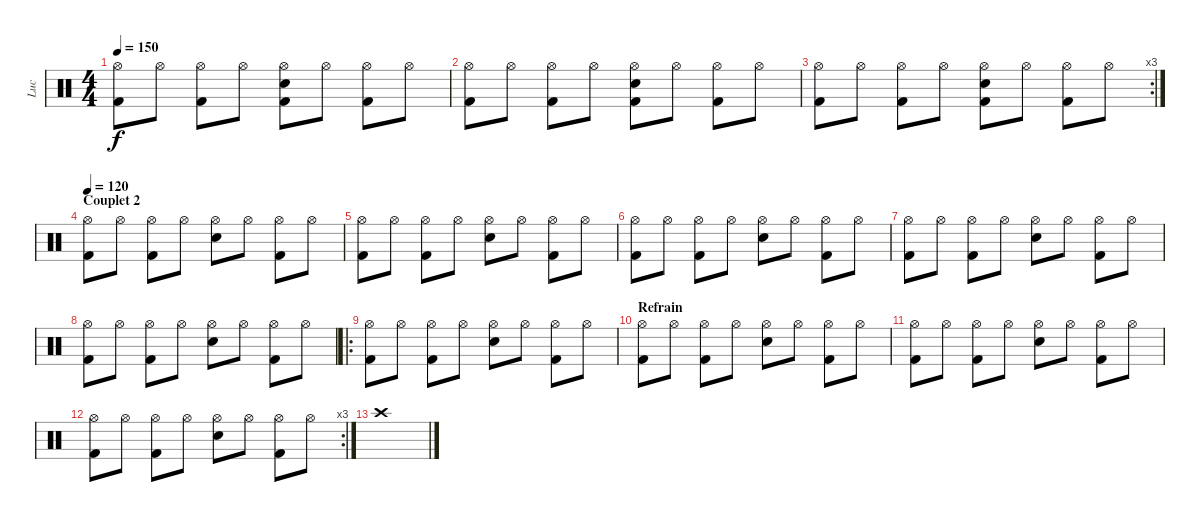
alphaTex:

\track ("Luc" "Luc") {instrument percussion}
\staff {score}
\articulation defaults
\ts (4 4)
\tempo 150
\clef neutral
\ks c
("Hi-Hat (open)" "Kick (hit) 2").8{dy f} "Hi-Hat (open)".8 ("Hi-Hat (open)" "Kick (hit) 2").8 "Hi-Hat (open)".8 ("Hi-Hat (open)" "Snare (hit) 2" "Kick (hit) 2").8 "Hi-Hat (open)".8 ("Hi-Hat (open)" "Kick (hit) 2").8 "Hi-Hat (open)".8 |
("Hi-Hat (open)" "Kick (hit) 2").8 "Hi-Hat (open)".8 ("Hi-Hat (open)" "Kick (hit) 2").8 "Hi-Hat (open)".8 ("Hi-Hat (open)" "Snare (hit) 2" "Kick (hit) 2").8 "Hi-Hat (open)".8 ("Hi-Hat (open)" "Kick (hit) 2").8 "Hi-Hat (open)".8 |
\rc 3
("Hi-Hat (open)" "Kick (hit) 2").8 "Hi-Hat (open)".8 ("Hi-Hat (open)" "Kick (hit) 2").8 "Hi-Hat (open)".8 ("Hi-Hat (open)" "Snare (hit) 2" "Kick (hit) 2").8 "Hi-Hat (open)".8 ("Hi-Hat (open)" "Kick (hit) 2").8 "Hi-Hat (open)".8 |
\section ("" "Couplet 2")
\tempo 120
("Hi-Hat (open)" "Kick (hit) 2").8 "Hi-Hat (open)".8 ("Hi-Hat (open)" "Kick (hit) 2").8 "Hi-Hat (open)".8 ("Hi-Hat (open)" "Snare (hit) 2").8 "Hi-Hat (open)".8 ("Hi-Hat (open)" "Kick (hit) 2").8 "Hi-Hat (open)".8 |
("Hi-Hat (open)" "Kick (hit) 2").8 "Hi-Hat (open)".8 ("Hi-Hat (open)" "Kick (hit) 2").8 "Hi-Hat (open)".8 ("Hi-Hat (open)" "Snare (hit) 2").8 "Hi-Hat (open)".8 ("Hi-Hat (open)" "Kick (hit) 2").8 "Hi-Hat (open)".8 |
("Hi-Hat (open)" "Kick (hit) 2").8 "Hi-Hat (open)".8 ("Hi-Hat (open)" "Kick (hit) 2").8 "Hi-Hat (open)".8 ("Hi-Hat (open)" "Snare (hit) 2").8 "Hi-Hat (open)".8 ("Hi-Hat (open)" "Kick (hit) 2").8 "Hi-Hat (open)".8 |
("Hi-Hat (open)" "Kick (hit) 2").8 "Hi-Hat (open)".8 ("Hi-Hat (open)" "Kick (hit) 2").8 "Hi-Hat (open)".8 ("Hi-Hat (open)" "Snare (hit) 2").8 "Hi-Hat (open)".8 ("Hi-Hat (open)" "Kick (hit) 2").8 "Hi-Hat (open)".8 |
("Hi-Hat (open)" "Kick (hit) 2").8 "Hi-Hat (open)".8 ("Hi-Hat (open)" "Kick (hit) 2").8 "Hi-Hat (open)".8 ("Hi-Hat (open)" "Snare (hit) 2").8 "Hi-Hat (open)".8 ("Hi-Hat (open)" "Kick (hit) 2").8 "Hi-Hat (open)".8 |
\ro
("Hi-Hat (open)" "Kick (hit) 2").8 "Hi-Hat (open)".8 ("Hi-Hat (open)" "Kick (hit) 2").8 "Hi-Hat (open)".8 ("Hi-Hat (open)" "Snare (hit) 2").8 "Hi-Hat (open)".8 ("Hi-Hat (open)" "Kick (hit) 2").8 "Hi-Hat (open)".8 |
\section ("" "Refrain")
("Hi-Hat (open)" "Kick (hit) 2").8 "Hi-Hat (open)".8 ("Hi-Hat (open)" "Kick (hit) 2").8 "Hi-Hat (open)".8 ("Hi-Hat (open)" "Snare (hit) 2").8 "Hi-Hat (open)".8 ("Hi-Hat (open)" "Kick (hit) 2").8 "Hi-Hat (open)".8 |
("Hi-Hat (open)" "Kick (hit) 2").8 "Hi-Hat (open)".8 ("Hi-Hat (open)" "Kick (hit) 2").8 "Hi-Hat (open)".8 ("Hi-Hat (open)" "Snare (hit) 2").8 "Hi-Hat (open)".8 ("Hi-Hat (open)" "Kick (hit) 2").8 "Hi-Hat (open)".8 |
\rc 3
("Hi-Hat (open)" "Kick (hit) 2").8 "Hi-Hat (open)".8 ("Hi-Hat (open)" "Kick (hit) 2").8 "Hi-Hat (open)".8 ("Hi-Hat (open)" "Snare (hit) 2").8 "Hi-Hat (open)".8 ("Hi-Hat (open)" "Kick (hit) 2").8 "Hi-Hat (open)".8 |
"Crash high (hit)".1
